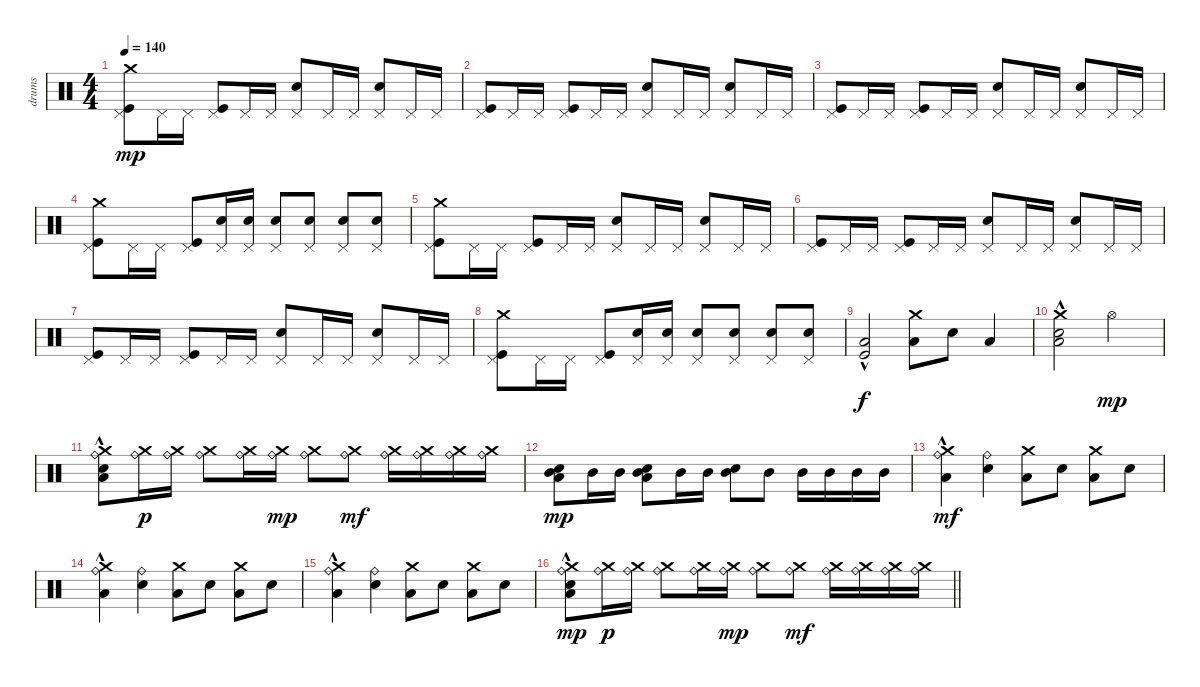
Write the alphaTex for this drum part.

\track ("drums" "drums") {instrument percussion}
\staff {score}
\articulation defaults
\ts (4 4)
\tempo 140
\clef neutral
\ks c
("Crash medium (hit)" "Pedal Hi-Hat (hit)" "Kick (hit)").8{dy mp} "Pedal Hi-Hat (hit)".16 "Pedal Hi-Hat (hit)".16 ("Pedal Hi-Hat (hit)" "Kick (hit)").8 "Pedal Hi-Hat (hit)".16 "Pedal Hi-Hat (hit)".16 ("Pedal Hi-Hat (hit)" "Snare (hit) 2").8 "Pedal Hi-Hat (hit)".16 "Pedal Hi-Hat (hit)".16 ("Pedal Hi-Hat (hit)" "Snare (hit) 2").8 "Pedal Hi-Hat (hit)".16 "Pedal Hi-Hat (hit)".16 |
("Pedal Hi-Hat (hit)" "Kick (hit)").8 "Pedal Hi-Hat (hit)".16 "Pedal Hi-Hat (hit)".16 ("Pedal Hi-Hat (hit)" "Kick (hit)").8 "Pedal Hi-Hat (hit)".16 "Pedal Hi-Hat (hit)".16 ("Pedal Hi-Hat (hit)" "Snare (hit) 2").8 "Pedal Hi-Hat (hit)".16 "Pedal Hi-Hat (hit)".16 ("Pedal Hi-Hat (hit)" "Snare (hit) 2").8 "Pedal Hi-Hat (hit)".16 "Pedal Hi-Hat (hit)".16 |
("Pedal Hi-Hat (hit)" "Kick (hit)").8 "Pedal Hi-Hat (hit)".16 "Pedal Hi-Hat (hit)".16 ("Pedal Hi-Hat (hit)" "Kick (hit)").8 "Pedal Hi-Hat (hit)".16 "Pedal Hi-Hat (hit)".16 ("Pedal Hi-Hat (hit)" "Snare (hit) 2").8 "Pedal Hi-Hat (hit)".16 "Pedal Hi-Hat (hit)".16 ("Pedal Hi-Hat (hit)" "Snare (hit) 2").8 "Pedal Hi-Hat (hit)".16 "Pedal Hi-Hat (hit)".16 |
("Crash medium (hit)" "Pedal Hi-Hat (hit)" "Kick (hit)").8 "Pedal Hi-Hat (hit)".16 "Pedal Hi-Hat (hit)".16 ("Pedal Hi-Hat (hit)" "Kick (hit)").8 ("Pedal Hi-Hat (hit)" "Snare (hit) 2").16 ("Pedal Hi-Hat (hit)" "Snare (hit) 2").16 ("Pedal Hi-Hat (hit)" "Snare (hit) 2").8 ("Pedal Hi-Hat (hit)" "Snare (hit) 2").8 ("Pedal Hi-Hat (hit)" "Snare (hit) 2").8 ("Pedal Hi-Hat (hit)" "Snare (hit) 2").8 |
("Crash medium (hit)" "Pedal Hi-Hat (hit)" "Kick (hit)").8 "Pedal Hi-Hat (hit)".16 "Pedal Hi-Hat (hit)".16 ("Pedal Hi-Hat (hit)" "Kick (hit)").8 "Pedal Hi-Hat (hit)".16 "Pedal Hi-Hat (hit)".16 ("Pedal Hi-Hat (hit)" "Snare (hit) 2").8 "Pedal Hi-Hat (hit)".16 "Pedal Hi-Hat (hit)".16 ("Pedal Hi-Hat (hit)" "Snare (hit) 2").8 "Pedal Hi-Hat (hit)".16 "Pedal Hi-Hat (hit)".16 |
("Pedal Hi-Hat (hit)" "Kick (hit)").8 "Pedal Hi-Hat (hit)".16 "Pedal Hi-Hat (hit)".16 ("Pedal Hi-Hat (hit)" "Kick (hit)").8 "Pedal Hi-Hat (hit)".16 "Pedal Hi-Hat (hit)".16 ("Pedal Hi-Hat (hit)" "Snare (hit) 2").8 "Pedal Hi-Hat (hit)".16 "Pedal Hi-Hat (hit)".16 ("Pedal Hi-Hat (hit)" "Snare (hit) 2").8 "Pedal Hi-Hat (hit)".16 "Pedal Hi-Hat (hit)".16 |
("Pedal Hi-Hat (hit)" "Kick (hit)").8 "Pedal Hi-Hat (hit)".16 "Pedal Hi-Hat (hit)".16 ("Pedal Hi-Hat (hit)" "Kick (hit)").8 "Pedal Hi-Hat (hit)".16 "Pedal Hi-Hat (hit)".16 ("Pedal Hi-Hat (hit)" "Snare (hit) 2").8 "Pedal Hi-Hat (hit)".16 "Pedal Hi-Hat (hit)".16 ("Pedal Hi-Hat (hit)" "Snare (hit) 2").8 "Pedal Hi-Hat (hit)".16 "Pedal Hi-Hat (hit)".16 |
("Crash medium (hit)" "Pedal Hi-Hat (hit)" "Kick (hit)").8 "Pedal Hi-Hat (hit)".16 "Pedal Hi-Hat (hit)".16 ("Pedal Hi-Hat (hit)" "Kick (hit)").8 ("Pedal Hi-Hat (hit)" "Snare (hit) 2").16 ("Pedal Hi-Hat (hit)" "Snare (hit) 2").16 ("Pedal Hi-Hat (hit)" "Snare (hit) 2").8 ("Pedal Hi-Hat (hit)" "Snare (hit) 2").8 ("Pedal Hi-Hat (hit)" "Snare (hit) 2").8 ("Pedal Hi-Hat (hit)" "Snare (hit) 2").8 |
("Low Tom (hit)" "Kick (hit)"{hac}).2{dy f} ("Crash medium (hit)" "Low Tom (hit)").8 "Snare (hit) 2".8 "Low Tom (hit)".4 |
("Crash medium (hit)"{hac} "Snare (hit) 2"{hac} "Low Floor Tom (hit)"{hac}).2 "Hi-Hat (open)".2{dy mp} |
("Crash medium (hit)"{hac} "Ride (bell)" "Snare (hit) 2"{hac} "Low Floor Tom (hit)"{hac}).8 ("Ride (bell)" "Crash medium (hit)").16{dy p} ("Ride (bell)" "Crash medium (hit)").16 ("Ride (bell)" "Crash medium (hit)").8 ("Ride (bell)" "Crash medium (hit)").16 ("Ride (bell)" "Crash medium (hit)").16{dy mp} ("Ride (bell)" "Crash medium (hit)").8 ("Ride (bell)" "Crash medium (hit)").8{dy mf} ("Ride (bell)" "Crash medium (hit)").16 ("Ride (bell)" "Crash medium (hit)").16 ("Ride (bell)" "Crash medium (hit)").16 ("Ride (bell)" "Crash medium (hit)").16 |
("Mid Tom (hit)" "Snare (hit) 2" "Low Floor Tom (hit)").8{dy mp} "Mid Tom (hit)".16 "Mid Tom (hit)".16 ("Mid Tom (hit)" "Snare (hit) 2" "Low Floor Tom (hit)").8 "Mid Tom (hit)".16 "Mid Tom (hit)".16 ("Mid Tom (hit)" "Snare (hit) 2").8 "Mid Tom (hit)".8 "Mid Tom (hit)".16 "Mid Tom (hit)".16 "Mid Tom (hit)".16 "Mid Tom (hit)".16 |
("Crash medium (hit)" "Ride (bell)"{hac} "Low Floor Tom (hit)").4{dy mf} ("Ride (bell)" "Snare (hit) 2").4 ("Crash medium (hit)" "Low Floor Tom (hit)").8 "Snare (hit) 2".8 ("Crash medium (hit)" "Low Floor Tom (hit)").8 "Snare (hit) 2".8 |
("Crash medium (hit)" "Ride (bell)"{hac} "Low Floor Tom (hit)").4 ("Ride (bell)" "Snare (hit) 2").4 ("Crash medium (hit)" "Low Floor Tom (hit)").8 "Snare (hit) 2".8 ("Crash medium (hit)" "Low Floor Tom (hit)").8 "Snare (hit) 2".8 |
("Crash medium (hit)" "Ride (bell)"{hac} "Low Floor Tom (hit)").4 ("Ride (bell)" "Snare (hit) 2").4 ("Crash medium (hit)" "Low Floor Tom (hit)").8 "Snare (hit) 2".8 ("Crash medium (hit)" "Low Floor Tom (hit)").8 "Snare (hit) 2".8 |
\barLineRight lightlight
("Crash medium (hit)"{hac} "Ride (bell)" "Snare (hit) 2"{hac} "Low Floor Tom (hit)"{hac}).8{dy mp} ("Ride (bell)" "Crash medium (hit)").16{dy p} ("Ride (bell)" "Crash medium (hit)").16 ("Ride (bell)" "Crash medium (hit)").8 ("Ride (bell)" "Crash medium (hit)").16 ("Ride (bell)" "Crash medium (hit)").16{dy mp} ("Ride (bell)" "Crash medium (hit)").8 ("Ride (bell)" "Crash medium (hit)").8{dy mf} ("Ride (bell)" "Crash medium (hit)").16 ("Ride (bell)" "Crash medium (hit)").16 ("Ride (bell)" "Crash medium (hit)").16 ("Ride (bell)" "Crash medium (hit)").16
